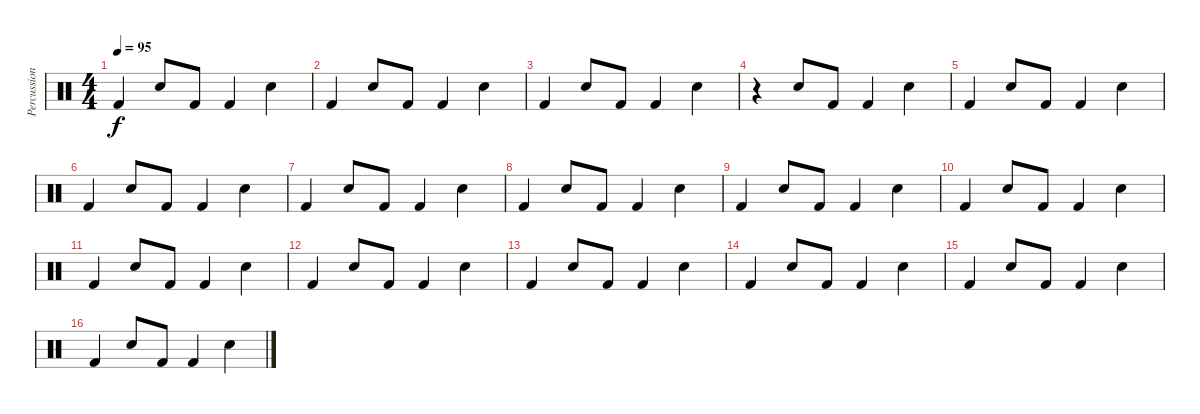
\track ("Percussions" "Percussion") {instrument percussion}
\staff {score}
\articulation defaults
\ts (4 4)
\tempo 95
\clef neutral
\ks c "Kick (hit) 2".4{dy f} "Snare (hit) 2".8 "Kick (hit) 2".8 "Kick (hit) 2".4 "Snare (hit) 2".4
|
"Kick (hit) 2".4 "Snare (hit) 2".8 "Kick (hit) 2".8 "Kick (hit) 2".4 "Snare (hit) 2".4 |
"Kick (hit) 2".4 "Snare (hit) 2".8 "Kick (hit) 2".8 "Kick (hit) 2".4 "Snare (hit) 2".4 |
r.4 "Snare (hit) 2".8 "Kick (hit) 2".8 "Kick (hit) 2".4 "Snare (hit) 2".4 |
"Kick (hit) 2".4 "Snare (hit) 2".8 "Kick (hit) 2".8 "Kick (hit) 2".4 "Snare (hit) 2".4 |
"Kick (hit) 2".4 "Snare (hit) 2".8 "Kick (hit) 2".8 "Kick (hit) 2".4 "Snare (hit) 2".4 |
"Kick (hit) 2".4 "Snare (hit) 2".8 "Kick (hit) 2".8 "Kick (hit) 2".4 "Snare (hit) 2".4 |
"Kick (hit) 2".4 "Snare (hit) 2".8 "Kick (hit) 2".8 "Kick (hit) 2".4 "Snare (hit) 2".4 |
"Kick (hit) 2".4 "Snare (hit) 2".8 "Kick (hit) 2".8 "Kick (hit) 2".4 "Snare (hit) 2".4 |
"Kick (hit) 2".4 "Snare (hit) 2".8 "Kick (hit) 2".8 "Kick (hit) 2".4 "Snare (hit) 2".4 |
"Kick (hit) 2".4 "Snare (hit) 2".8 "Kick (hit) 2".8 "Kick (hit) 2".4 "Snare (hit) 2".4 |
"Kick (hit) 2".4 "Snare (hit) 2".8 "Kick (hit) 2".8 "Kick (hit) 2".4 "Snare (hit) 2".4 |
"Kick (hit) 2".4 "Snare (hit) 2".8 "Kick (hit) 2".8 "Kick (hit) 2".4 "Snare (hit) 2".4 |
"Kick (hit) 2".4 "Snare (hit) 2".8 "Kick (hit) 2".8 "Kick (hit) 2".4 "Snare (hit) 2".4 |
"Kick (hit) 2".4 "Snare (hit) 2".8 "Kick (hit) 2".8 "Kick (hit) 2".4 "Snare (hit) 2".4 |
"Kick (hit) 2".4 "Snare (hit) 2".8 "Kick (hit) 2".8 "Kick (hit) 2".4 "Snare (hit) 2".4
